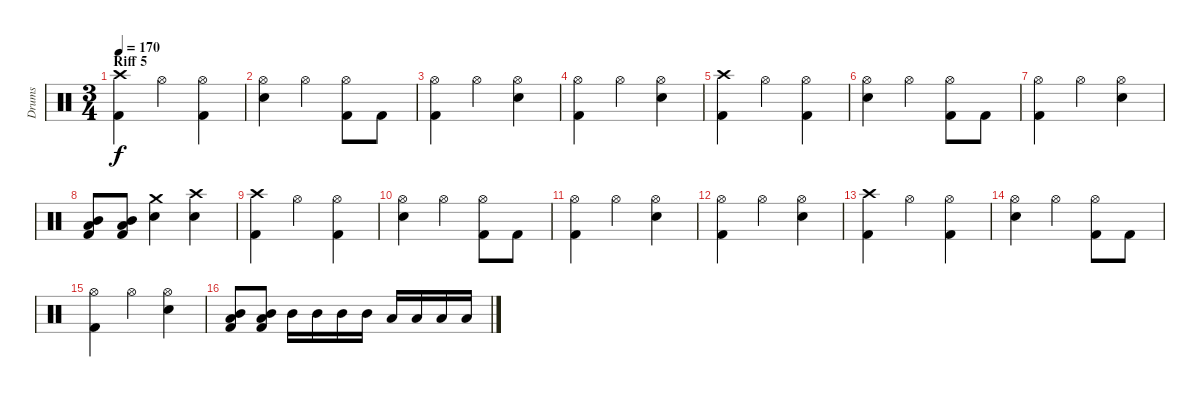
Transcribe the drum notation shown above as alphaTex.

\track ("Drums" "Drums") {instrument percussion}
\staff {score}
\articulation defaults
\ts (3 4)
\section ("" "Riff 5")
\tempo 170
\clef neutral
\ks c
("Crash high (hit)" "Kick (hit) 2").4{dy f} "Hi-Hat (open)".4 ("Hi-Hat (open)" "Kick (hit) 2").4 |
("Hi-Hat (open)" "Electric Snare (hit)").4 "Hi-Hat (open)".4 ("Hi-Hat (open)" "Kick (hit) 2").8 "Kick (hit) 2".8 |
("Hi-Hat (open)" "Kick (hit) 2").4 "Hi-Hat (open)".4 ("Hi-Hat (open)" "Electric Snare (hit)").4 |
("Hi-Hat (open)" "Kick (hit) 2").4 "Hi-Hat (open)".4 ("Hi-Hat (open)" "Electric Snare (hit)").4 |
("Crash high (hit)" "Kick (hit) 2").4 "Hi-Hat (open)".4 ("Hi-Hat (open)" "Kick (hit) 2").4 |
("Hi-Hat (open)" "Electric Snare (hit)").4 "Hi-Hat (open)".4 ("Hi-Hat (open)" "Kick (hit) 2").8 "Kick (hit) 2".8 |
("Hi-Hat (open)" "Kick (hit) 2").4 "Hi-Hat (open)".4 ("Hi-Hat (open)" "Electric Snare (hit)").4 |
("Mid Tom (hit)" "Low Tom (hit)" "Kick (hit) 2").8 ("Mid Tom (hit)" "Low Tom (hit)" "Kick (hit) 2").8 ("Crash medium (hit)" "Electric Snare (hit)").4 ("Crash high (hit)" "Electric Snare (hit)").4 |
("Crash high (hit)" "Kick (hit) 2").4 "Hi-Hat (open)".4 ("Hi-Hat (open)" "Kick (hit) 2").4 |
("Hi-Hat (open)" "Electric Snare (hit)").4 "Hi-Hat (open)".4 ("Hi-Hat (open)" "Kick (hit) 2").8 "Kick (hit) 2".8 |
("Hi-Hat (open)" "Kick (hit) 2").4 "Hi-Hat (open)".4 ("Hi-Hat (open)" "Electric Snare (hit)").4 |
("Hi-Hat (open)" "Kick (hit) 2").4 "Hi-Hat (open)".4 ("Hi-Hat (open)" "Electric Snare (hit)").4 |
("Crash high (hit)" "Kick (hit) 2").4 "Hi-Hat (open)".4 ("Hi-Hat (open)" "Kick (hit) 2").4 |
("Hi-Hat (open)" "Electric Snare (hit)").4 "Hi-Hat (open)".4 ("Hi-Hat (open)" "Kick (hit) 2").8 "Kick (hit) 2".8 |
("Hi-Hat (open)" "Kick (hit) 2").4 "Hi-Hat (open)".4 ("Hi-Hat (open)" "Electric Snare (hit)").4 |
("Mid Tom (hit)" "Low Tom (hit)" "Kick (hit) 2").8 ("Mid Tom (hit)" "Low Tom (hit)" "Kick (hit) 2").8 "Mid Tom (hit)".16 "Mid Tom (hit)".16 "Mid Tom (hit)".16 "Mid Tom (hit)".16 "Low Tom (hit)".16 "Low Tom (hit)".16 "Low Tom (hit)".16 "Low Tom (hit)".16
